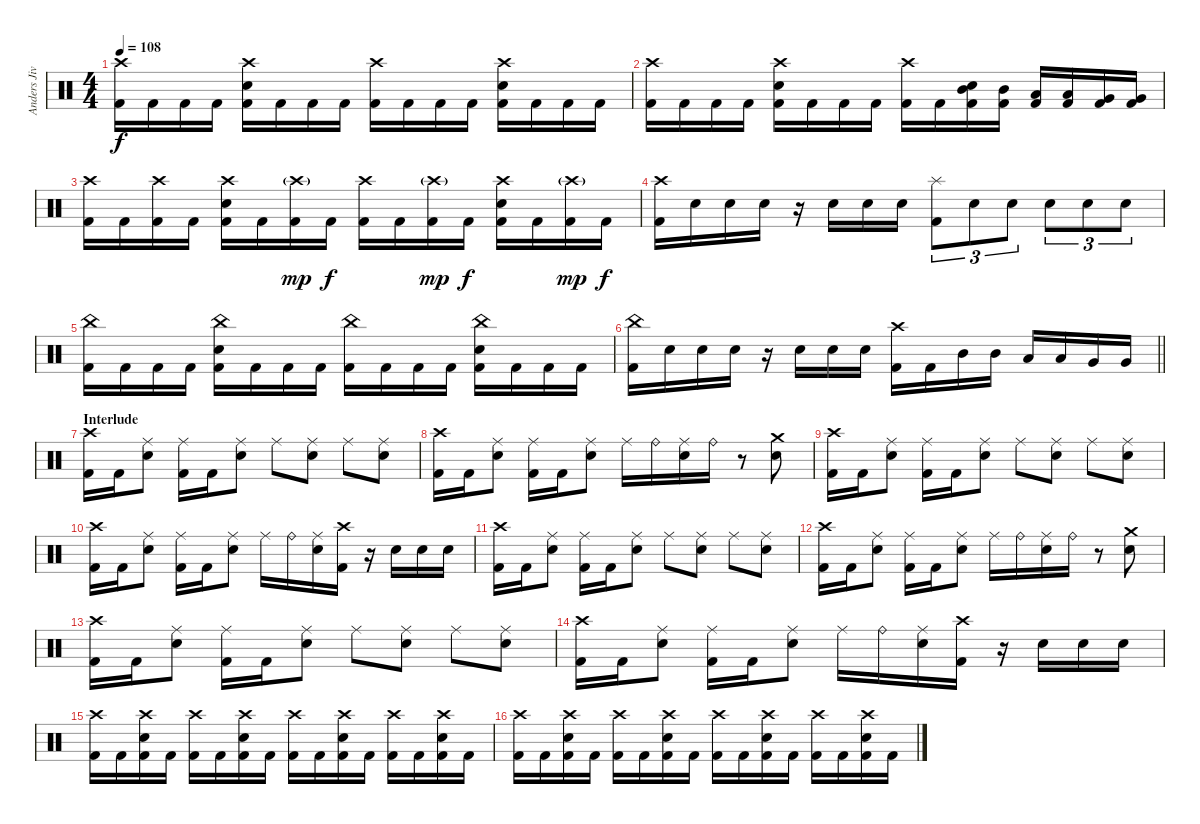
\track ("Anders Jivarp" "Anders Jiv") {instrument percussion}
\staff {score}
\articulation defaults
\ts (4 4)
\tempo 108
\clef neutral
\ks c
("Crash high (hit)" "Kick (hit) 2").16{dy f} "Kick (hit) 2".16 "Kick (hit) 2".16 "Kick (hit) 2".16 ("Crash high (hit)" "Snare (hit) 2" "Kick (hit) 2").16 "Kick (hit) 2".16 "Kick (hit) 2".16 "Kick (hit) 2".16 ("Crash high (hit)" "Kick (hit) 2").16 "Kick (hit) 2".16 "Kick (hit) 2".16 "Kick (hit) 2".16 ("Crash high (hit)" "Snare (hit) 2" "Kick (hit) 2").16 "Kick (hit) 2".16 "Kick (hit) 2".16 "Kick (hit) 2".16 |
("Crash high (hit)" "Kick (hit) 2").16 "Kick (hit) 2".16 "Kick (hit) 2".16 "Kick (hit) 2".16 ("Crash high (hit)" "Snare (hit) 2" "Kick (hit) 2").16 "Kick (hit) 2".16 "Kick (hit) 2".16 "Kick (hit) 2".16 ("Crash high (hit)" "Kick (hit) 2").16 "Kick (hit) 2".16 ("Mid Tom (hit)" "Snare (hit) 2" "Kick (hit) 2").16 ("Mid Tom (hit)" "Kick (hit) 2").16 ("Low Tom (hit)" "Kick (hit) 2").16 ("Low Tom (hit)" "Kick (hit) 2").16 ("Very Low Tom (hit)" "Kick (hit) 2").16 ("Very Low Tom (hit)" "Kick (hit) 2").16 |
("Crash high (hit)" "Kick (hit) 2").16 "Kick (hit) 2".16 ("Crash high (hit)" "Kick (hit) 2").16 "Kick (hit) 2".16 ("Crash high (hit)" "Snare (hit) 2" "Kick (hit) 2").16 "Kick (hit) 2".16 ("Crash high (hit)"{g} "Kick (hit) 2").16{dy mp} "Kick (hit) 2".16{dy f} ("Crash high (hit)" "Kick (hit) 2").16 "Kick (hit) 2".16 ("Crash high (hit)"{g} "Kick (hit) 2").16{dy mp} "Kick (hit) 2".16{dy f} ("Crash high (hit)" "Snare (hit) 2" "Kick (hit) 2").16 "Kick (hit) 2".16 ("Crash high (hit)"{g} "Kick (hit) 2").16{dy mp} "Kick (hit) 2".16{dy f} |
("Crash high (hit)" "Kick (hit) 2").16 "Snare (hit) 2".16 "Snare (hit) 2".16 "Snare (hit) 2".16 r.16 "Snare (hit) 2".16 "Snare (hit) 2".16 "Snare (hit) 2".16 ("Splash (hit)" "Kick (hit) 2").8{tu (3 2)} "Snare (hit) 2".8{tu (3 2)} "Snare (hit) 2".8{tu (3 2)} "Snare (hit) 2".8{tu (3 2)} "Snare (hit) 2".8{tu (3 2)} "Snare (hit) 2".8{tu (3 2)} |
("China (hit)" "Kick (hit) 2").16 "Kick (hit) 2".16 "Kick (hit) 2".16 "Kick (hit) 2".16 ("China (hit)" "Snare (hit) 2" "Kick (hit) 2").16 "Kick (hit) 2".16 "Kick (hit) 2".16 "Kick (hit) 2".16 ("China (hit)" "Kick (hit) 2").16 "Kick (hit) 2".16 "Kick (hit) 2".16 "Kick (hit) 2".16 ("China (hit)" "Snare (hit) 2" "Kick (hit) 2").16 "Kick (hit) 2".16 "Kick (hit) 2".16 "Kick (hit) 2".16 |
\barLineRight lightlight
("China (hit)" "Kick (hit) 2").16 "Snare (hit) 2".16 "Snare (hit) 2".16 "Snare (hit) 2".16 r.16 "Snare (hit) 2".16 "Snare (hit) 2".16 "Snare (hit) 2".16 ("Crash high (hit)" "Kick (hit) 2").16 "Kick (hit) 2".16 "Mid Tom (hit)".16 "Mid Tom (hit)".16 "Low Tom (hit)".16 "Low Tom (hit)".16 "Very Low Tom (hit)".16 "Very Low Tom (hit)".16 |
\section ("" "Interlude")
("Crash high (hit)" "Kick (hit) 2").16 "Kick (hit) 2".16 ("Ride (middle)" "Snare (hit) 2").8 ("Ride (middle)" "Kick (hit) 2").16 "Kick (hit) 2".16 ("Ride (middle)" "Snare (hit) 2").8 "Ride (middle)".8 ("Ride (middle)" "Snare (hit) 2").8 "Ride (middle)".8 ("Ride (middle)" "Snare (hit) 2").8 |
("Crash high (hit)" "Kick (hit) 2").16 "Kick (hit) 2".16 ("Ride (middle)" "Snare (hit) 2").8 ("Ride (middle)" "Kick (hit) 2").16 "Kick (hit) 2".16 ("Ride (middle)" "Snare (hit) 2").8 "Ride (middle)".16 "Ride (bell)".16 ("Ride (middle)" "Snare (hit) 2").16 "Ride (bell)".16 r.8 ("Crash medium (hit)" "Snare (hit) 2").8 |
("Crash high (hit)" "Kick (hit) 2").16 "Kick (hit) 2".16 ("Ride (middle)" "Snare (hit) 2").8 ("Ride (middle)" "Kick (hit) 2").16 "Kick (hit) 2".16 ("Ride (middle)" "Snare (hit) 2").8 "Ride (middle)".8 ("Ride (middle)" "Snare (hit) 2").8 "Ride (middle)".8 ("Ride (middle)" "Snare (hit) 2").8 |
("Crash high (hit)" "Kick (hit) 2").16 "Kick (hit) 2".16 ("Ride (middle)" "Snare (hit) 2").8 ("Ride (middle)" "Kick (hit) 2").16 "Kick (hit) 2".16 ("Ride (middle)" "Snare (hit) 2").8 "Ride (middle)".16 "Ride (bell)".16 ("Ride (middle)" "Snare (hit) 2").16 ("Crash high (hit)" "Kick (hit) 2").16 r.16 "Snare (hit) 2".16 "Snare (hit) 2".16 "Snare (hit) 2".16 |
("Crash high (hit)" "Kick (hit) 2").16 "Kick (hit) 2".16 ("Ride (middle)" "Snare (hit) 2").8 ("Ride (middle)" "Kick (hit) 2").16 "Kick (hit) 2".16 ("Ride (middle)" "Snare (hit) 2").8 "Ride (middle)".8 ("Ride (middle)" "Snare (hit) 2").8 "Ride (middle)".8 ("Ride (middle)" "Snare (hit) 2").8 |
("Crash high (hit)" "Kick (hit) 2").16 "Kick (hit) 2".16 ("Ride (middle)" "Snare (hit) 2").8 ("Ride (middle)" "Kick (hit) 2").16 "Kick (hit) 2".16 ("Ride (middle)" "Snare (hit) 2").8 "Ride (middle)".16 "Ride (bell)".16 ("Ride (middle)" "Snare (hit) 2").16 "Ride (bell)".16 r.8 ("Crash medium (hit)" "Snare (hit) 2").8 |
("Crash high (hit)" "Kick (hit) 2").16 "Kick (hit) 2".16 ("Ride (middle)" "Snare (hit) 2").8 ("Ride (middle)" "Kick (hit) 2").16 "Kick (hit) 2".16 ("Ride (middle)" "Snare (hit) 2").8 "Ride (middle)".8 ("Ride (middle)" "Snare (hit) 2").8 "Ride (middle)".8 ("Ride (middle)" "Snare (hit) 2").8 |
("Crash high (hit)" "Kick (hit) 2").16 "Kick (hit) 2".16 ("Ride (middle)" "Snare (hit) 2").8 ("Ride (middle)" "Kick (hit) 2").16 "Kick (hit) 2".16 ("Ride (middle)" "Snare (hit) 2").8 "Ride (middle)".16 "Ride (bell)".16 ("Ride (middle)" "Snare (hit) 2").16 ("Crash high (hit)" "Kick (hit) 2").16 r.16 "Snare (hit) 2".16 "Snare (hit) 2".16 "Snare (hit) 2".16 |
("Crash high (hit)" "Kick (hit) 2").16 "Kick (hit) 2".16 ("Crash high (hit)" "Snare (hit) 2" "Kick (hit) 2").16 "Kick (hit) 2".16 ("Crash high (hit)" "Kick (hit) 2").16 "Kick (hit) 2".16 ("Crash high (hit)" "Snare (hit) 2" "Kick (hit) 2").16 "Kick (hit) 2".16 ("Crash high (hit)" "Kick (hit) 2").16 "Kick (hit) 2".16 ("Crash high (hit)" "Snare (hit) 2" "Kick (hit) 2").16 "Kick (hit) 2".16 ("Crash high (hit)" "Kick (hit) 2").16 "Kick (hit) 2".16 ("Crash high (hit)" "Snare (hit) 2" "Kick (hit) 2").16 "Kick (hit) 2".16 |
("Crash high (hit)" "Kick (hit) 2").16 "Kick (hit) 2".16 ("Crash high (hit)" "Snare (hit) 2" "Kick (hit) 2").16 "Kick (hit) 2".16 ("Crash high (hit)" "Kick (hit) 2").16 "Kick (hit) 2".16 ("Crash high (hit)" "Snare (hit) 2" "Kick (hit) 2").16 "Kick (hit) 2".16 ("Crash high (hit)" "Kick (hit) 2").16 "Kick (hit) 2".16 ("Crash high (hit)" "Snare (hit) 2" "Kick (hit) 2").16 "Kick (hit) 2".16 ("Crash high (hit)" "Kick (hit) 2").16 "Kick (hit) 2".16 ("Crash high (hit)" "Snare (hit) 2" "Kick (hit) 2").16 "Kick (hit) 2".16
